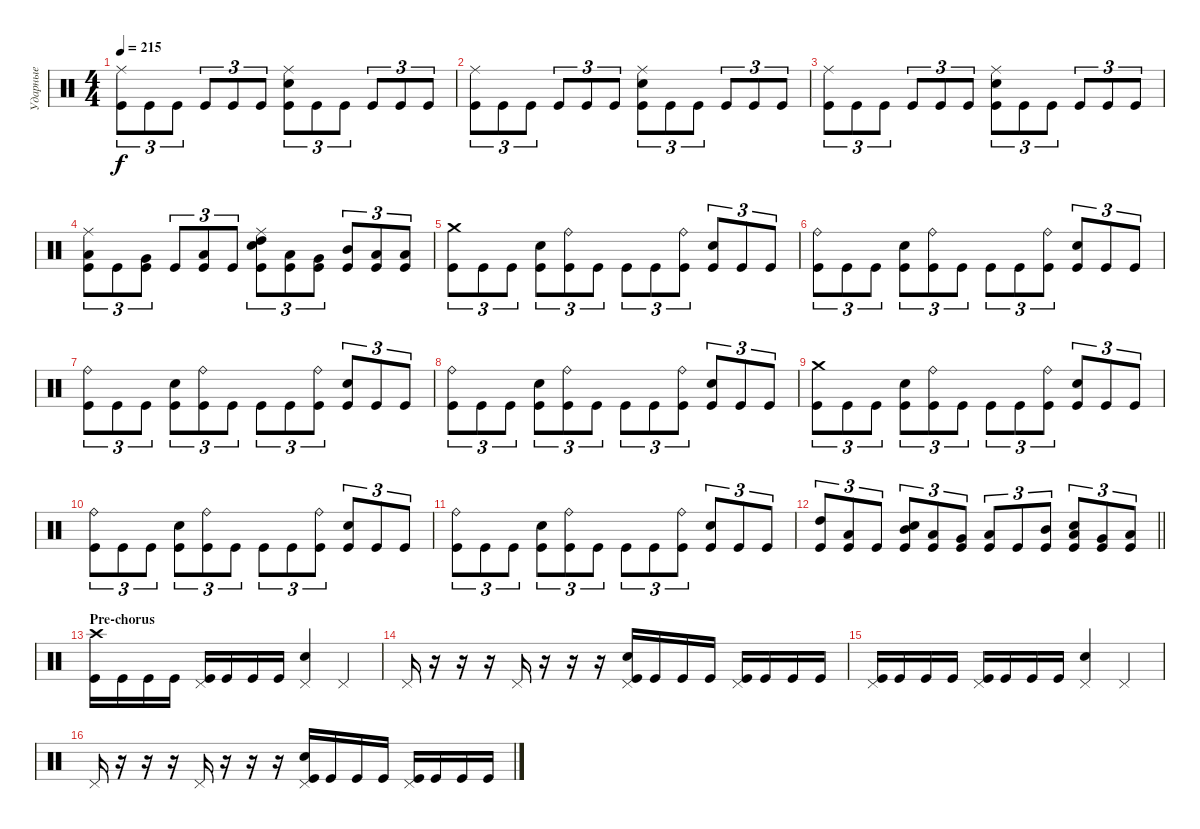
\track ("Ударные" "Ударные") {instrument percussion}
\staff {score}
\articulation defaults
\ts (4 4)
\tempo 215
\clef neutral
\ks c
("Ride (middle)" "Kick (hit)").8{tu (3 2) dy f} "Kick (hit)".8{tu (3 2)} "Kick (hit)".8{tu (3 2)} "Kick (hit)".8{tu (3 2)} "Kick (hit)".8{tu (3 2)} "Kick (hit)".8{tu (3 2)} ("Ride (middle)" "Electric Snare (hit)" "Kick (hit)").8{tu (3 2)} "Kick (hit)".8{tu (3 2)} "Kick (hit)".8{tu (3 2)} "Kick (hit)".8{tu (3 2)} "Kick (hit)".8{tu (3 2)} "Kick (hit)".8{tu (3 2)} |
("Ride (middle)" "Kick (hit)").8{tu (3 2)} "Kick (hit)".8{tu (3 2)} "Kick (hit)".8{tu (3 2)} "Kick (hit)".8{tu (3 2)} "Kick (hit)".8{tu (3 2)} "Kick (hit)".8{tu (3 2)} ("Ride (middle)" "Electric Snare (hit)" "Kick (hit)").8{tu (3 2)} "Kick (hit)".8{tu (3 2)} "Kick (hit)".8{tu (3 2)} "Kick (hit)".8{tu (3 2)} "Kick (hit)".8{tu (3 2)} "Kick (hit)".8{tu (3 2)} |
("Ride (middle)" "Kick (hit)").8{tu (3 2)} "Kick (hit)".8{tu (3 2)} "Kick (hit)".8{tu (3 2)} "Kick (hit)".8{tu (3 2)} "Kick (hit)".8{tu (3 2)} "Kick (hit)".8{tu (3 2)} ("Ride (middle)" "Electric Snare (hit)" "Kick (hit)").8{tu (3 2)} "Kick (hit)".8{tu (3 2)} "Kick (hit)".8{tu (3 2)} "Kick (hit)".8{tu (3 2)} "Kick (hit)".8{tu (3 2)} "Kick (hit)".8{tu (3 2)} |
("Ride (middle)" "Low Tom (hit)" "Kick (hit)").8{tu (3 2)} "Kick (hit)".8{tu (3 2)} ("Very Low Tom (hit)" "Kick (hit)").8{tu (3 2)} "Kick (hit)".8{tu (3 2)} ("Low Tom (hit)" "Kick (hit)").8{tu (3 2)} "Kick (hit)".8{tu (3 2)} ("Ride (middle)" "High Tom (hit)" "Electric Snare (hit)" "Kick (hit)").8{tu (3 2)} ("Low Tom (hit)" "Kick (hit)").8{tu (3 2)} ("Very Low Tom (hit)" "Kick (hit)").8{tu (3 2)} ("Mid Tom (hit)" "Kick (hit)").8{tu (3 2)} ("Low Tom (hit)" "Kick (hit)").8{tu (3 2)} ("Low Floor Tom (hit)" "Kick (hit)").8{tu (3 2)} |
("Crash medium (hit)" "Kick (hit)").8{tu (3 2)} "Kick (hit)".8{tu (3 2)} "Kick (hit)".8{tu (3 2)} ("Electric Snare (hit)" "Kick (hit)").8{tu (3 2)} ("Ride (bell)" "Kick (hit)").8{tu (3 2)} "Kick (hit)".8{tu (3 2)} "Kick (hit)".8{tu (3 2)} "Kick (hit)".8{tu (3 2)} ("Ride (bell)" "Kick (hit)").8{tu (3 2)} ("Electric Snare (hit)" "Kick (hit)").8{tu (3 2)} "Kick (hit)".8{tu (3 2)} "Kick (hit)".8{tu (3 2)} |
("Ride (bell)" "Kick (hit)").8{tu (3 2)} "Kick (hit)".8{tu (3 2)} "Kick (hit)".8{tu (3 2)} ("Electric Snare (hit)" "Kick (hit)").8{tu (3 2)} ("Ride (bell)" "Kick (hit)").8{tu (3 2)} "Kick (hit)".8{tu (3 2)} "Kick (hit)".8{tu (3 2)} "Kick (hit)".8{tu (3 2)} ("Ride (bell)" "Kick (hit)").8{tu (3 2)} ("Electric Snare (hit)" "Kick (hit)").8{tu (3 2)} "Kick (hit)".8{tu (3 2)} "Kick (hit)".8{tu (3 2)} |
("Ride (bell)" "Kick (hit)").8{tu (3 2)} "Kick (hit)".8{tu (3 2)} "Kick (hit)".8{tu (3 2)} ("Electric Snare (hit)" "Kick (hit)").8{tu (3 2)} ("Ride (bell)" "Kick (hit)").8{tu (3 2)} "Kick (hit)".8{tu (3 2)} "Kick (hit)".8{tu (3 2)} "Kick (hit)".8{tu (3 2)} ("Ride (bell)" "Kick (hit)").8{tu (3 2)} ("Electric Snare (hit)" "Kick (hit)").8{tu (3 2)} "Kick (hit)".8{tu (3 2)} "Kick (hit)".8{tu (3 2)} |
("Ride (bell)" "Kick (hit)").8{tu (3 2)} "Kick (hit)".8{tu (3 2)} "Kick (hit)".8{tu (3 2)} ("Electric Snare (hit)" "Kick (hit)").8{tu (3 2)} ("Ride (bell)" "Kick (hit)").8{tu (3 2)} "Kick (hit)".8{tu (3 2)} "Kick (hit)".8{tu (3 2)} "Kick (hit)".8{tu (3 2)} ("Ride (bell)" "Kick (hit)").8{tu (3 2)} ("Electric Snare (hit)" "Kick (hit)").8{tu (3 2)} "Kick (hit)".8{tu (3 2)} "Kick (hit)".8{tu (3 2)} |
("Crash medium (hit)" "Kick (hit)").8{tu (3 2)} "Kick (hit)".8{tu (3 2)} "Kick (hit)".8{tu (3 2)} ("Electric Snare (hit)" "Kick (hit)").8{tu (3 2)} ("Ride (bell)" "Kick (hit)").8{tu (3 2)} "Kick (hit)".8{tu (3 2)} "Kick (hit)".8{tu (3 2)} "Kick (hit)".8{tu (3 2)} ("Ride (bell)" "Kick (hit)").8{tu (3 2)} ("Electric Snare (hit)" "Kick (hit)").8{tu (3 2)} "Kick (hit)".8{tu (3 2)} "Kick (hit)".8{tu (3 2)} |
("Ride (bell)" "Kick (hit)").8{tu (3 2)} "Kick (hit)".8{tu (3 2)} "Kick (hit)".8{tu (3 2)} ("Electric Snare (hit)" "Kick (hit)").8{tu (3 2)} ("Ride (bell)" "Kick (hit)").8{tu (3 2)} "Kick (hit)".8{tu (3 2)} "Kick (hit)".8{tu (3 2)} "Kick (hit)".8{tu (3 2)} ("Ride (bell)" "Kick (hit)").8{tu (3 2)} ("Electric Snare (hit)" "Kick (hit)").8{tu (3 2)} "Kick (hit)".8{tu (3 2)} "Kick (hit)".8{tu (3 2)} |
("Ride (bell)" "Kick (hit)").8{tu (3 2)} "Kick (hit)".8{tu (3 2)} "Kick (hit)".8{tu (3 2)} ("Electric Snare (hit)" "Kick (hit)").8{tu (3 2)} ("Ride (bell)" "Kick (hit)").8{tu (3 2)} "Kick (hit)".8{tu (3 2)} "Kick (hit)".8{tu (3 2)} "Kick (hit)".8{tu (3 2)} ("Ride (bell)" "Kick (hit)").8{tu (3 2)} ("Electric Snare (hit)" "Kick (hit)").8{tu (3 2)} "Kick (hit)".8{tu (3 2)} "Kick (hit)".8{tu (3 2)} |
\barLineRight lightlight
("High Tom (hit)" "Kick (hit)").8{tu (3 2)} ("Low Tom (hit)" "Kick (hit)").8{tu (3 2)} "Kick (hit)".8{tu (3 2)} ("Mid Tom (hit)" "Electric Snare (hit)" "Kick (hit)").8{tu (3 2)} ("Low Tom (hit)" "Kick (hit)").8{tu (3 2)} ("Very Low Tom (hit)" "Kick (hit)").8{tu (3 2)} ("Low Tom (hit)" "Kick (hit)").8{tu (3 2)} "Kick (hit)".8{tu (3 2)} ("Mid Tom (hit)" "Kick (hit)").8{tu (3 2)} ("Low Tom (hit)" "Electric Snare (hit)" "Kick (hit)").8{tu (3 2)} ("Very Low Tom (hit)" "Kick (hit)").8{tu (3 2)} ("Low Floor Tom (hit)" "Kick (hit)").8{tu (3 2)} |
\section ("" "Pre-chorus")
("Crash high (hit)" "Kick (hit)").16 "Kick (hit)".16 "Kick (hit)".16 "Kick (hit)".16 ("Pedal Hi-Hat (hit)" "Kick (hit)").16 "Kick (hit)".16 "Kick (hit)".16 "Kick (hit)".16 ("Pedal Hi-Hat (hit)" "Electric Snare (hit)").4 "Pedal Hi-Hat (hit)".4 |
"Pedal Hi-Hat (hit)".16 r.16 r.16 r.16 "Pedal Hi-Hat (hit)".16 r.16 r.16 r.16 ("Pedal Hi-Hat (hit)" "Electric Snare (hit)" "Kick (hit)").16 "Kick (hit)".16 "Kick (hit)".16 "Kick (hit)".16 ("Pedal Hi-Hat (hit)" "Kick (hit)").16 "Kick (hit)".16 "Kick (hit)".16 "Kick (hit)".16 |
("Pedal Hi-Hat (hit)" "Kick (hit)").16 "Kick (hit)".16 "Kick (hit)".16 "Kick (hit)".16 ("Pedal Hi-Hat (hit)" "Kick (hit)").16 "Kick (hit)".16 "Kick (hit)".16 "Kick (hit)".16 ("Pedal Hi-Hat (hit)" "Electric Snare (hit)").4 "Pedal Hi-Hat (hit)".4 |
"Pedal Hi-Hat (hit)".16 r.16 r.16 r.16 "Pedal Hi-Hat (hit)".16 r.16 r.16 r.16 ("Pedal Hi-Hat (hit)" "Electric Snare (hit)" "Kick (hit)").16 "Kick (hit)".16 "Kick (hit)".16 "Kick (hit)".16 ("Pedal Hi-Hat (hit)" "Kick (hit)").16 "Kick (hit)".16 "Kick (hit)".16 "Kick (hit)".16
